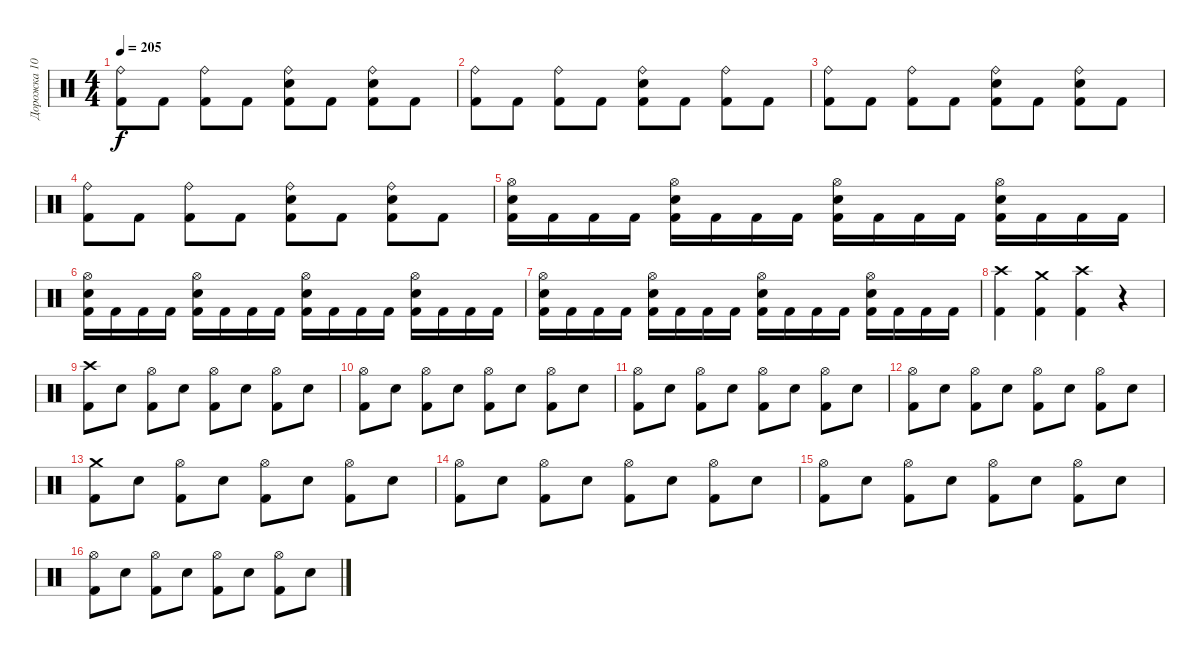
\track ("Дорожка 10" "Дорожка 10") {instrument percussion}
\staff {score}
\articulation defaults
\ts (4 4)
\tempo 205
\clef neutral
\ks c
("Ride (bell)" "Kick (hit) 2").8{dy f} "Kick (hit) 2".8 ("Ride (bell)" "Kick (hit) 2").8 "Kick (hit) 2".8 ("Ride (bell)" "Electric Snare (hit)" "Kick (hit) 2").8 "Kick (hit) 2".8 ("Ride (bell)" "Electric Snare (hit)" "Kick (hit) 2").8 "Kick (hit) 2".8 |
("Ride (bell)" "Kick (hit) 2").8 "Kick (hit) 2".8 ("Ride (bell)" "Kick (hit) 2").8 "Kick (hit) 2".8 ("Ride (bell)" "Electric Snare (hit)" "Kick (hit) 2").8 "Kick (hit) 2".8 ("Ride (bell)" "Kick (hit) 2").8 "Kick (hit) 2".8 |
("Ride (bell)" "Kick (hit) 2").8 "Kick (hit) 2".8 ("Ride (bell)" "Kick (hit) 2").8 "Kick (hit) 2".8 ("Ride (bell)" "Electric Snare (hit)" "Kick (hit) 2").8 "Kick (hit) 2".8 ("Ride (bell)" "Electric Snare (hit)" "Kick (hit) 2").8 "Kick (hit) 2".8 |
("Ride (bell)" "Kick (hit) 2").8 "Kick (hit) 2".8 ("Ride (bell)" "Kick (hit) 2").8 "Kick (hit) 2".8 ("Ride (bell)" "Electric Snare (hit)" "Kick (hit) 2").8 "Kick (hit) 2".8 ("Ride (bell)" "Electric Snare (hit)" "Kick (hit) 2").8 "Kick (hit) 2".8 |
("Hi-Hat (open)" "Electric Snare (hit)" "Kick (hit) 2").16 "Kick (hit) 2".16 "Kick (hit) 2".16 "Kick (hit) 2".16 ("Hi-Hat (open)" "Electric Snare (hit)" "Kick (hit) 2").16 "Kick (hit) 2".16 "Kick (hit) 2".16 "Kick (hit) 2".16 ("Hi-Hat (open)" "Electric Snare (hit)" "Kick (hit) 2").16 "Kick (hit) 2".16 "Kick (hit) 2".16 "Kick (hit) 2".16 ("Hi-Hat (open)" "Electric Snare (hit)" "Kick (hit) 2").16 "Kick (hit) 2".16 "Kick (hit) 2".16 "Kick (hit) 2".16 |
("Hi-Hat (open)" "Electric Snare (hit)" "Kick (hit) 2").16 "Kick (hit) 2".16 "Kick (hit) 2".16 "Kick (hit) 2".16 ("Hi-Hat (open)" "Electric Snare (hit)" "Kick (hit) 2").16 "Kick (hit) 2".16 "Kick (hit) 2".16 "Kick (hit) 2".16 ("Hi-Hat (open)" "Electric Snare (hit)" "Kick (hit) 2").16 "Kick (hit) 2".16 "Kick (hit) 2".16 "Kick (hit) 2".16 ("Hi-Hat (open)" "Electric Snare (hit)" "Kick (hit) 2").16 "Kick (hit) 2".16 "Kick (hit) 2".16 "Kick (hit) 2".16 |
("Hi-Hat (open)" "Electric Snare (hit)" "Kick (hit) 2").16 "Kick (hit) 2".16 "Kick (hit) 2".16 "Kick (hit) 2".16 ("Hi-Hat (open)" "Electric Snare (hit)" "Kick (hit) 2").16 "Kick (hit) 2".16 "Kick (hit) 2".16 "Kick (hit) 2".16 ("Hi-Hat (open)" "Electric Snare (hit)" "Kick (hit) 2").16 "Kick (hit) 2".16 "Kick (hit) 2".16 "Kick (hit) 2".16 ("Hi-Hat (open)" "Electric Snare (hit)" "Kick (hit) 2").16 "Kick (hit) 2".16 "Kick (hit) 2".16 "Kick (hit) 2".16 |
("Crash high (hit)" "Kick (hit) 2").4 ("Crash medium (hit)" "Kick (hit) 2").4 ("Crash high (hit)" "Kick (hit) 2").4 r.4 |
("Crash high (hit)" "Kick (hit) 2").8 "Electric Snare (hit)".8 ("Hi-Hat (open)" "Kick (hit) 2").8 "Electric Snare (hit)".8 ("Hi-Hat (open)" "Kick (hit) 2").8 "Electric Snare (hit)".8 ("Hi-Hat (open)" "Kick (hit) 2").8 "Electric Snare (hit)".8 |
("Hi-Hat (open)" "Kick (hit) 2").8 "Electric Snare (hit)".8 ("Hi-Hat (open)" "Kick (hit) 2").8 "Electric Snare (hit)".8 ("Hi-Hat (open)" "Kick (hit) 2").8 "Electric Snare (hit)".8 ("Hi-Hat (open)" "Kick (hit) 2").8 "Electric Snare (hit)".8 |
("Hi-Hat (open)" "Kick (hit) 2").8 "Electric Snare (hit)".8 ("Hi-Hat (open)" "Kick (hit) 2").8 "Electric Snare (hit)".8 ("Hi-Hat (open)" "Kick (hit) 2").8 "Electric Snare (hit)".8 ("Hi-Hat (open)" "Kick (hit) 2").8 "Electric Snare (hit)".8 |
("Hi-Hat (open)" "Kick (hit) 2").8 "Electric Snare (hit)".8 ("Hi-Hat (open)" "Kick (hit) 2").8 "Electric Snare (hit)".8 ("Hi-Hat (open)" "Kick (hit) 2").8 "Electric Snare (hit)".8 ("Hi-Hat (open)" "Kick (hit) 2").8 "Electric Snare (hit)".8 |
("Crash medium (hit)" "Kick (hit) 2").8 "Electric Snare (hit)".8 ("Hi-Hat (open)" "Kick (hit) 2").8 "Electric Snare (hit)".8 ("Hi-Hat (open)" "Kick (hit) 2").8 "Electric Snare (hit)".8 ("Hi-Hat (open)" "Kick (hit) 2").8 "Electric Snare (hit)".8 |
("Hi-Hat (open)" "Kick (hit) 2").8 "Electric Snare (hit)".8 ("Hi-Hat (open)" "Kick (hit) 2").8 "Electric Snare (hit)".8 ("Hi-Hat (open)" "Kick (hit) 2").8 "Electric Snare (hit)".8 ("Hi-Hat (open)" "Kick (hit) 2").8 "Electric Snare (hit)".8 |
("Hi-Hat (open)" "Kick (hit) 2").8 "Electric Snare (hit)".8 ("Hi-Hat (open)" "Kick (hit) 2").8 "Electric Snare (hit)".8 ("Hi-Hat (open)" "Kick (hit) 2").8 "Electric Snare (hit)".8 ("Hi-Hat (open)" "Kick (hit) 2").8 "Electric Snare (hit)".8 |
("Hi-Hat (open)" "Kick (hit) 2").8 "Electric Snare (hit)".8 ("Hi-Hat (open)" "Kick (hit) 2").8 "Electric Snare (hit)".8 ("Hi-Hat (open)" "Kick (hit) 2").8 "Electric Snare (hit)".8 ("Hi-Hat (open)" "Kick (hit) 2").8 "Electric Snare (hit)".8
